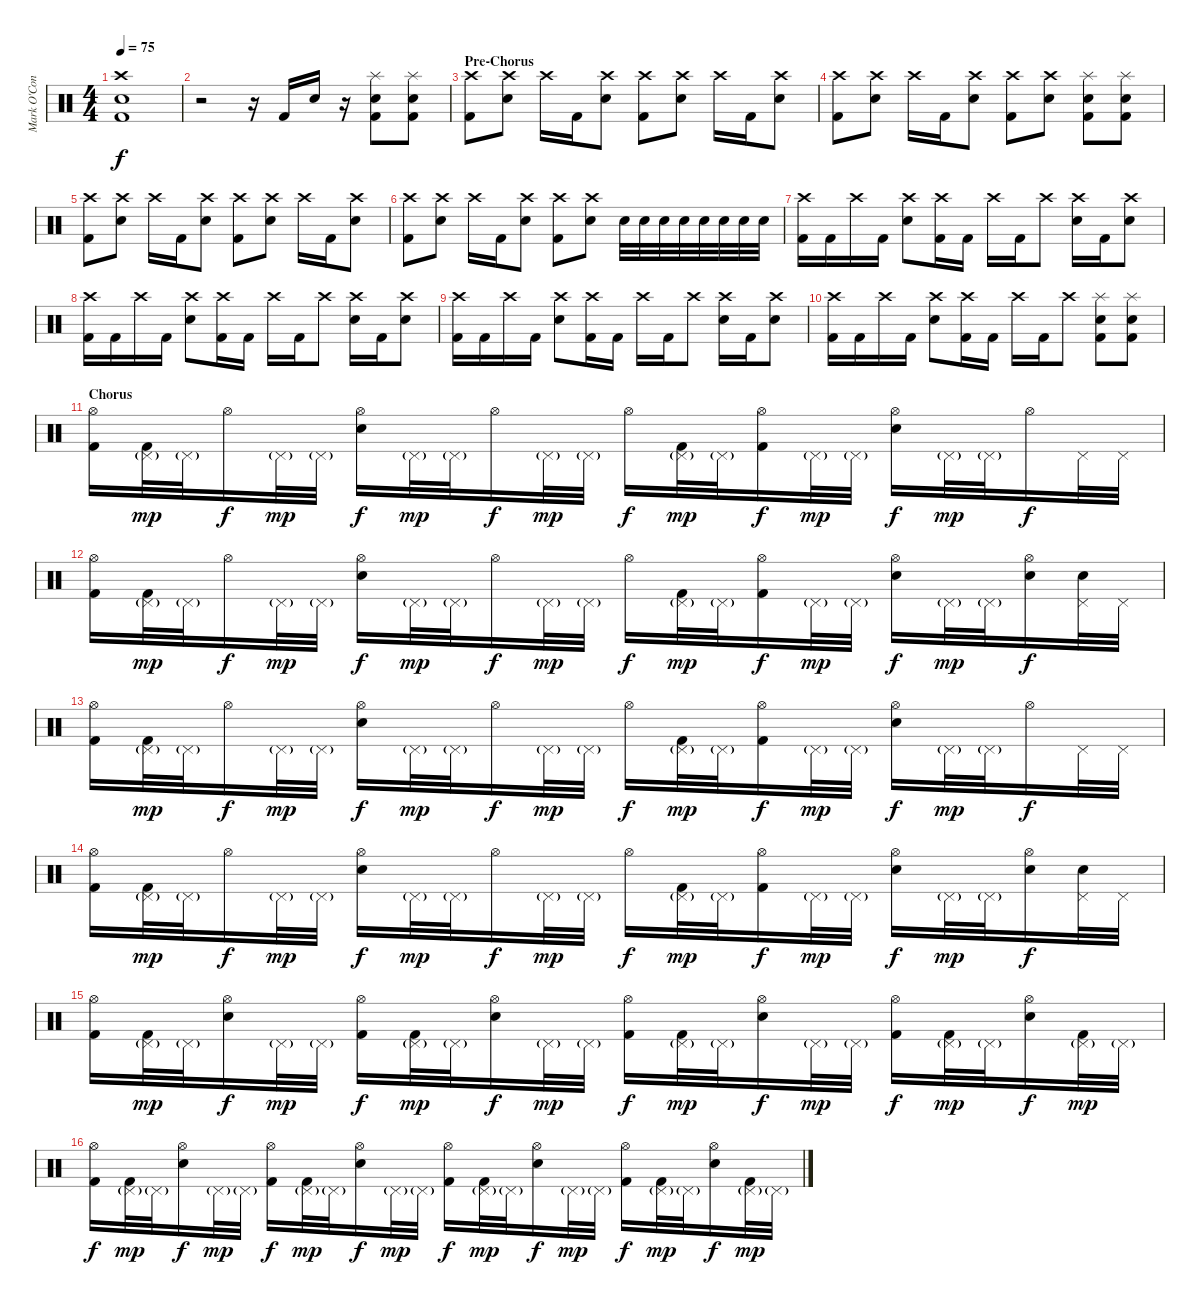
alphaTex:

\track ("Mark O'Connell (Drums)" "Mark O'Con") {instrument percussion}
\staff {score}
\articulation defaults
\ts (4 4)
\tempo 75
\clef neutral
\ks c
("Crash high (hit)" "Electric Snare (hit)" "Kick (hit) 2").1{dy f} |
r.2 r.16 "Kick (hit) 2".16 "Electric Snare (hit)".16 r.16 ("Splash (hit)" "Electric Snare (hit)" "Kick (hit) 2").8 ("Splash (hit)" "Electric Snare (hit)" "Kick (hit) 2").8 |
\section ("" "Pre-Chorus")
("Crash high (hit)" "Kick (hit) 2").8 ("Crash high (hit)" "Electric Snare (hit)").8 "Crash high (hit)".16 "Kick (hit) 2".16 ("Crash high (hit)" "Electric Snare (hit)").8 ("Crash high (hit)" "Kick (hit) 2").8 ("Crash high (hit)" "Electric Snare (hit)").8 "Crash high (hit)".16 "Kick (hit) 2".16 ("Crash high (hit)" "Electric Snare (hit)").8 |
("Crash high (hit)" "Kick (hit) 2").8 ("Crash high (hit)" "Electric Snare (hit)").8 "Crash high (hit)".16 "Kick (hit) 2".16 ("Crash high (hit)" "Electric Snare (hit)").8 ("Crash high (hit)" "Kick (hit) 2").8 ("Crash high (hit)" "Electric Snare (hit)").8 ("Splash (hit)" "Electric Snare (hit)" "Kick (hit) 2").8 ("Splash (hit)" "Electric Snare (hit)" "Kick (hit) 2").8 |
("Crash high (hit)" "Kick (hit) 2").8 ("Crash high (hit)" "Electric Snare (hit)").8 "Crash high (hit)".16 "Kick (hit) 2".16 ("Crash high (hit)" "Electric Snare (hit)").8 ("Crash high (hit)" "Kick (hit) 2").8 ("Crash high (hit)" "Electric Snare (hit)").8 "Crash high (hit)".16 "Kick (hit) 2".16 ("Crash high (hit)" "Electric Snare (hit)").8 |
("Crash high (hit)" "Kick (hit) 2").8 ("Crash high (hit)" "Electric Snare (hit)").8 "Crash high (hit)".16 "Kick (hit) 2".16 ("Crash high (hit)" "Electric Snare (hit)").8 ("Crash high (hit)" "Kick (hit) 2").8 ("Crash high (hit)" "Electric Snare (hit)").8 "Electric Snare (hit)".32 "Electric Snare (hit)".32 "Electric Snare (hit)".32 "Electric Snare (hit)".32 "Electric Snare (hit)".32 "Electric Snare (hit)".32 "Electric Snare (hit)".32 "Electric Snare (hit)".32 |
("Crash high (hit)" "Kick (hit) 2").16 "Kick (hit) 2".16 "Crash high (hit)".16 "Kick (hit) 2".16 ("Crash high (hit)" "Electric Snare (hit)").8 ("Crash high (hit)" "Kick (hit) 2").16 "Kick (hit) 2".16 "Crash high (hit)".16 "Kick (hit) 2".16 "Crash high (hit)".8 ("Crash high (hit)" "Electric Snare (hit)").16 "Kick (hit) 2".16 ("Crash high (hit)" "Electric Snare (hit)").8 |
("Crash high (hit)" "Kick (hit) 2").16 "Kick (hit) 2".16 "Crash high (hit)".16 "Kick (hit) 2".16 ("Crash high (hit)" "Electric Snare (hit)").8 ("Crash high (hit)" "Kick (hit) 2").16 "Kick (hit) 2".16 "Crash high (hit)".16 "Kick (hit) 2".16 "Crash high (hit)".8 ("Crash high (hit)" "Electric Snare (hit)").16 "Kick (hit) 2".16 ("Crash high (hit)" "Electric Snare (hit)").8 |
("Crash high (hit)" "Kick (hit) 2").16 "Kick (hit) 2".16 "Crash high (hit)".16 "Kick (hit) 2".16 ("Crash high (hit)" "Electric Snare (hit)").8 ("Crash high (hit)" "Kick (hit) 2").16 "Kick (hit) 2".16 "Crash high (hit)".16 "Kick (hit) 2".16 "Crash high (hit)".8 ("Crash high (hit)" "Electric Snare (hit)").16 "Kick (hit) 2".16 ("Crash high (hit)" "Electric Snare (hit)").8 |
("Crash high (hit)" "Kick (hit) 2").16 "Kick (hit) 2".16 "Crash high (hit)".16 "Kick (hit) 2".16 ("Crash high (hit)" "Electric Snare (hit)").8 ("Crash high (hit)" "Kick (hit) 2").16 "Kick (hit) 2".16 "Crash high (hit)".16 "Kick (hit) 2".16 "Crash high (hit)".8 ("Splash (hit)" "Electric Snare (hit)" "Kick (hit) 2").8 ("Splash (hit)" "Electric Snare (hit)" "Kick (hit) 2").8 |
\section ("" "Chorus")
("Hi-Hat (open)" "Kick (hit) 2").16 ("Pedal Hi-Hat (hit)"{g} "Kick (hit) 2").32{dy mp} "Pedal Hi-Hat (hit)"{g}.32 "Hi-Hat (open)".16{dy f} "Pedal Hi-Hat (hit)"{g}.32{dy mp} "Pedal Hi-Hat (hit)"{g}.32 ("Hi-Hat (open)" "Electric Snare (hit)").16{dy f} "Pedal Hi-Hat (hit)"{g}.32{dy mp} "Pedal Hi-Hat (hit)"{g}.32 "Hi-Hat (open)".16{dy f} "Pedal Hi-Hat (hit)"{g}.32{dy mp} "Pedal Hi-Hat (hit)"{g}.32 "Hi-Hat (open)".16{dy f} ("Pedal Hi-Hat (hit)"{g} "Kick (hit) 2").32{dy mp} "Pedal Hi-Hat (hit)"{g}.32 ("Hi-Hat (open)" "Kick (hit) 2").16{dy f} "Pedal Hi-Hat (hit)"{g}.32{dy mp} "Pedal Hi-Hat (hit)"{g}.32 ("Hi-Hat (open)" "Electric Snare (hit)").16{dy f} "Pedal Hi-Hat (hit)"{g}.32{dy mp} "Pedal Hi-Hat (hit)"{g}.32 "Hi-Hat (open)".16{dy f} "Pedal Hi-Hat (hit)".32 "Pedal Hi-Hat (hit)".32 |
("Hi-Hat (open)" "Kick (hit) 2").16 ("Pedal Hi-Hat (hit)"{g} "Kick (hit) 2").32{dy mp} "Pedal Hi-Hat (hit)"{g}.32 "Hi-Hat (open)".16{dy f} "Pedal Hi-Hat (hit)"{g}.32{dy mp} "Pedal Hi-Hat (hit)"{g}.32 ("Hi-Hat (open)" "Electric Snare (hit)").16{dy f} "Pedal Hi-Hat (hit)"{g}.32{dy mp} "Pedal Hi-Hat (hit)"{g}.32 "Hi-Hat (open)".16{dy f} "Pedal Hi-Hat (hit)"{g}.32{dy mp} "Pedal Hi-Hat (hit)"{g}.32 "Hi-Hat (open)".16{dy f} ("Pedal Hi-Hat (hit)"{g} "Kick (hit) 2").32{dy mp} "Pedal Hi-Hat (hit)"{g}.32 ("Hi-Hat (open)" "Kick (hit) 2").16{dy f} "Pedal Hi-Hat (hit)"{g}.32{dy mp} "Pedal Hi-Hat (hit)"{g}.32 ("Hi-Hat (open)" "Electric Snare (hit)").16{dy f} "Pedal Hi-Hat (hit)"{g}.32{dy mp} "Pedal Hi-Hat (hit)"{g}.32 ("Hi-Hat (open)" "Electric Snare (hit)").16{dy f} ("Pedal Hi-Hat (hit)" "Electric Snare (hit)").32 "Pedal Hi-Hat (hit)".32 |
("Hi-Hat (open)" "Kick (hit) 2").16 ("Pedal Hi-Hat (hit)"{g} "Kick (hit) 2").32{dy mp} "Pedal Hi-Hat (hit)"{g}.32 "Hi-Hat (open)".16{dy f} "Pedal Hi-Hat (hit)"{g}.32{dy mp} "Pedal Hi-Hat (hit)"{g}.32 ("Hi-Hat (open)" "Electric Snare (hit)").16{dy f} "Pedal Hi-Hat (hit)"{g}.32{dy mp} "Pedal Hi-Hat (hit)"{g}.32 "Hi-Hat (open)".16{dy f} "Pedal Hi-Hat (hit)"{g}.32{dy mp} "Pedal Hi-Hat (hit)"{g}.32 "Hi-Hat (open)".16{dy f} ("Pedal Hi-Hat (hit)"{g} "Kick (hit) 2").32{dy mp} "Pedal Hi-Hat (hit)"{g}.32 ("Hi-Hat (open)" "Kick (hit) 2").16{dy f} "Pedal Hi-Hat (hit)"{g}.32{dy mp} "Pedal Hi-Hat (hit)"{g}.32 ("Hi-Hat (open)" "Electric Snare (hit)").16{dy f} "Pedal Hi-Hat (hit)"{g}.32{dy mp} "Pedal Hi-Hat (hit)"{g}.32 "Hi-Hat (open)".16{dy f} "Pedal Hi-Hat (hit)".32 "Pedal Hi-Hat (hit)".32 |
("Hi-Hat (open)" "Kick (hit) 2").16 ("Pedal Hi-Hat (hit)"{g} "Kick (hit) 2").32{dy mp} "Pedal Hi-Hat (hit)"{g}.32 "Hi-Hat (open)".16{dy f} "Pedal Hi-Hat (hit)"{g}.32{dy mp} "Pedal Hi-Hat (hit)"{g}.32 ("Hi-Hat (open)" "Electric Snare (hit)").16{dy f} "Pedal Hi-Hat (hit)"{g}.32{dy mp} "Pedal Hi-Hat (hit)"{g}.32 "Hi-Hat (open)".16{dy f} "Pedal Hi-Hat (hit)"{g}.32{dy mp} "Pedal Hi-Hat (hit)"{g}.32 "Hi-Hat (open)".16{dy f} ("Pedal Hi-Hat (hit)"{g} "Kick (hit) 2").32{dy mp} "Pedal Hi-Hat (hit)"{g}.32 ("Hi-Hat (open)" "Kick (hit) 2").16{dy f} "Pedal Hi-Hat (hit)"{g}.32{dy mp} "Pedal Hi-Hat (hit)"{g}.32 ("Hi-Hat (open)" "Electric Snare (hit)").16{dy f} "Pedal Hi-Hat (hit)"{g}.32{dy mp} "Pedal Hi-Hat (hit)"{g}.32 ("Hi-Hat (open)" "Electric Snare (hit)").16{dy f} ("Pedal Hi-Hat (hit)" "Electric Snare (hit)").32 "Pedal Hi-Hat (hit)".32 |
("Hi-Hat (open)" "Kick (hit) 2").16 ("Pedal Hi-Hat (hit)"{g} "Kick (hit) 2").32{dy mp} "Pedal Hi-Hat (hit)"{g}.32 ("Hi-Hat (open)" "Electric Snare (hit)").16{dy f} "Pedal Hi-Hat (hit)"{g}.32{dy mp} "Pedal Hi-Hat (hit)"{g}.32 ("Hi-Hat (open)" "Kick (hit) 2").16{dy f} ("Pedal Hi-Hat (hit)"{g} "Kick (hit) 2").32{dy mp} "Pedal Hi-Hat (hit)"{g}.32 ("Hi-Hat (open)" "Electric Snare (hit)").16{dy f} "Pedal Hi-Hat (hit)"{g}.32{dy mp} "Pedal Hi-Hat (hit)"{g}.32 ("Hi-Hat (open)" "Kick (hit) 2").16{dy f} ("Pedal Hi-Hat (hit)"{g} "Kick (hit) 2").32{dy mp} "Pedal Hi-Hat (hit)"{g}.32 ("Hi-Hat (open)" "Electric Snare (hit)").16{dy f} "Pedal Hi-Hat (hit)"{g}.32{dy mp} "Pedal Hi-Hat (hit)"{g}.32 ("Hi-Hat (open)" "Kick (hit) 2").16{dy f} ("Pedal Hi-Hat (hit)"{g} "Kick (hit) 2").32{dy mp} "Pedal Hi-Hat (hit)"{g}.32 ("Hi-Hat (open)" "Electric Snare (hit)").16{dy f} ("Pedal Hi-Hat (hit)"{g} "Kick (hit) 2").32{dy mp} "Pedal Hi-Hat (hit)"{g}.32 |
("Hi-Hat (open)" "Kick (hit) 2").16{dy f} ("Pedal Hi-Hat (hit)"{g} "Kick (hit) 2").32{dy mp} "Pedal Hi-Hat (hit)"{g}.32 ("Hi-Hat (open)" "Electric Snare (hit)").16{dy f} "Pedal Hi-Hat (hit)"{g}.32{dy mp} "Pedal Hi-Hat (hit)"{g}.32 ("Hi-Hat (open)" "Kick (hit) 2").16{dy f} ("Pedal Hi-Hat (hit)"{g} "Kick (hit) 2").32{dy mp} "Pedal Hi-Hat (hit)"{g}.32 ("Hi-Hat (open)" "Electric Snare (hit)").16{dy f} "Pedal Hi-Hat (hit)"{g}.32{dy mp} "Pedal Hi-Hat (hit)"{g}.32 ("Hi-Hat (open)" "Kick (hit) 2").16{dy f} ("Pedal Hi-Hat (hit)"{g} "Kick (hit) 2").32{dy mp} "Pedal Hi-Hat (hit)"{g}.32 ("Hi-Hat (open)" "Electric Snare (hit)").16{dy f} "Pedal Hi-Hat (hit)"{g}.32{dy mp} "Pedal Hi-Hat (hit)"{g}.32 ("Hi-Hat (open)" "Kick (hit) 2").16{dy f} ("Pedal Hi-Hat (hit)"{g} "Kick (hit) 2").32{dy mp} "Pedal Hi-Hat (hit)"{g}.32 ("Hi-Hat (open)" "Electric Snare (hit)").16{dy f} ("Pedal Hi-Hat (hit)"{g} "Kick (hit) 2").32{dy mp} "Pedal Hi-Hat (hit)"{g}.32
